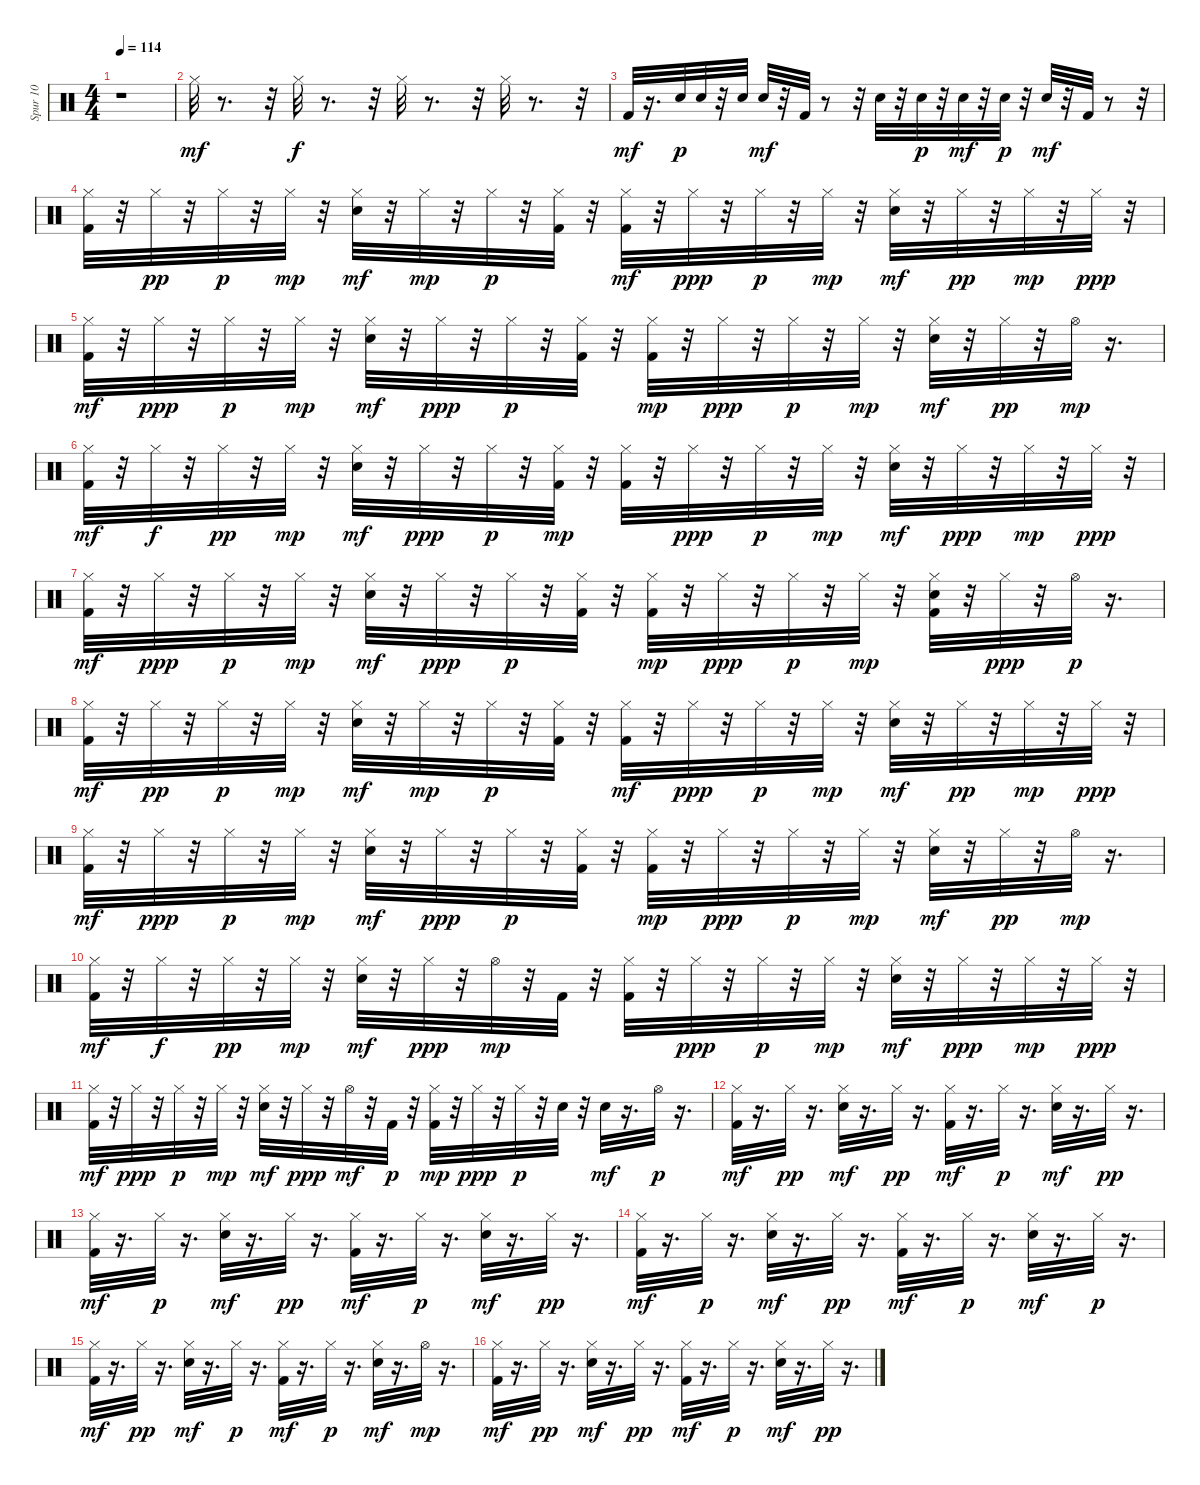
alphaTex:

\track ("Spur 10" "Spur 10") {instrument percussion}
\staff {score}
\articulation defaults
\ts (4 4)
\tempo 114
\clef neutral
\ks c
r.1{dy mf} |
"Hi-Hat (closed)".32 r.8{d} r.32 "Hi-Hat (closed)".32{dy f} r.8{d} r.32 "Hi-Hat (closed)".32 r.8{d} r.32 "Hi-Hat (closed)".32 r.8{d} r.32 |
"Kick (hit) 2".32{dy mf} r.16{d} "Electric Snare (hit)".32{dy p} "Electric Snare (hit)".32 r.32 "Electric Snare (hit)".32 "Electric Snare (hit)".32{dy mf} r.32 "Kick (hit) 2".32 r.8 r.32 "Electric Snare (hit)".32 r.32 "Electric Snare (hit)".32{dy p} r.32 "Electric Snare (hit)".32{dy mf} r.32 "Electric Snare (hit)".32{dy p} r.32 "Electric Snare (hit)".32{dy mf} r.32 "Kick (hit) 2".32 r.8 r.32 |
("Hi-Hat (closed)" "Kick (hit) 2").32 r.32 "Hi-Hat (closed)".32{dy pp} r.32 "Hi-Hat (closed)".32{dy p} r.32 "Hi-Hat (closed)".32{dy mp} r.32 ("Hi-Hat (closed)" "Electric Snare (hit)").32{dy mf} r.32 "Hi-Hat (closed)".32{dy mp} r.32 "Hi-Hat (closed)".32{dy p} r.32 ("Hi-Hat (closed)" "Kick (hit) 2").32 r.32 ("Hi-Hat (closed)" "Kick (hit) 2").32{dy mf} r.32 "Hi-Hat (closed)".32{dy ppp} r.32 "Hi-Hat (closed)".32{dy p} r.32 "Hi-Hat (closed)".32{dy mp} r.32 ("Hi-Hat (closed)" "Electric Snare (hit)").32{dy mf} r.32 "Hi-Hat (closed)".32{dy pp} r.32 "Hi-Hat (closed)".32{dy mp} r.32 "Hi-Hat (closed)".32{dy ppp} r.32 |
("Hi-Hat (closed)" "Kick (hit) 2").32{dy mf} r.32 "Hi-Hat (closed)".32{dy ppp} r.32 "Hi-Hat (closed)".32{dy p} r.32 "Hi-Hat (closed)".32{dy mp} r.32 ("Hi-Hat (closed)" "Electric Snare (hit)").32{dy mf} r.32 "Hi-Hat (closed)".32{dy ppp} r.32 "Hi-Hat (closed)".32{dy p} r.32 ("Hi-Hat (closed)" "Kick (hit) 2").32 r.32 ("Hi-Hat (closed)" "Kick (hit) 2").32{dy mp} r.32 "Hi-Hat (closed)".32{dy ppp} r.32 "Hi-Hat (closed)".32{dy p} r.32 "Hi-Hat (closed)".32{dy mp} r.32 ("Hi-Hat (closed)" "Electric Snare (hit)").32{dy mf} r.32 "Hi-Hat (closed)".32{dy pp} r.32 "Hi-Hat (open)".32{dy mp} r.16{d} |
("Hi-Hat (closed)" "Kick (hit) 2").32{dy mf} r.32 "Hi-Hat (closed)".32{dy f} r.32 "Hi-Hat (closed)".32{dy pp} r.32 "Hi-Hat (closed)".32{dy mp} r.32 ("Hi-Hat (closed)" "Electric Snare (hit)").32{dy mf} r.32 "Hi-Hat (closed)".32{dy ppp} r.32 "Hi-Hat (closed)".32{dy p} r.32 ("Hi-Hat (closed)" "Kick (hit) 2").32{dy mp} r.32 ("Hi-Hat (closed)" "Kick (hit) 2").32 r.32 "Hi-Hat (closed)".32{dy ppp} r.32 "Hi-Hat (closed)".32{dy p} r.32 "Hi-Hat (closed)".32{dy mp} r.32 ("Hi-Hat (closed)" "Electric Snare (hit)").32{dy mf} r.32 "Hi-Hat (closed)".32{dy ppp} r.32 "Hi-Hat (closed)".32{dy mp} r.32 "Hi-Hat (closed)".32{dy ppp} r.32 |
("Hi-Hat (closed)" "Kick (hit) 2").32{dy mf} r.32 "Hi-Hat (closed)".32{dy ppp} r.32 "Hi-Hat (closed)".32{dy p} r.32 "Hi-Hat (closed)".32{dy mp} r.32 ("Hi-Hat (closed)" "Electric Snare (hit)").32{dy mf} r.32 "Hi-Hat (closed)".32{dy ppp} r.32 "Hi-Hat (closed)".32{dy p} r.32 ("Hi-Hat (closed)" "Kick (hit) 2").32 r.32 ("Hi-Hat (closed)" "Kick (hit) 2").32{dy mp} r.32 "Hi-Hat (closed)".32{dy ppp} r.32 "Hi-Hat (closed)".32{dy p} r.32 "Hi-Hat (closed)".32{dy mp} r.32 ("Hi-Hat (closed)" "Electric Snare (hit)" "Kick (hit) 2").32 r.32 "Hi-Hat (closed)".32{dy ppp} r.32 "Hi-Hat (open)".32{dy p} r.16{d} |
("Hi-Hat (closed)" "Kick (hit) 2").32{dy mf} r.32 "Hi-Hat (closed)".32{dy pp} r.32 "Hi-Hat (closed)".32{dy p} r.32 "Hi-Hat (closed)".32{dy mp} r.32 ("Hi-Hat (closed)" "Electric Snare (hit)").32{dy mf} r.32 "Hi-Hat (closed)".32{dy mp} r.32 "Hi-Hat (closed)".32{dy p} r.32 ("Hi-Hat (closed)" "Kick (hit) 2").32 r.32 ("Hi-Hat (closed)" "Kick (hit) 2").32{dy mf} r.32 "Hi-Hat (closed)".32{dy ppp} r.32 "Hi-Hat (closed)".32{dy p} r.32 "Hi-Hat (closed)".32{dy mp} r.32 ("Hi-Hat (closed)" "Electric Snare (hit)").32{dy mf} r.32 "Hi-Hat (closed)".32{dy pp} r.32 "Hi-Hat (closed)".32{dy mp} r.32 "Hi-Hat (closed)".32{dy ppp} r.32 |
("Hi-Hat (closed)" "Kick (hit) 2").32{dy mf} r.32 "Hi-Hat (closed)".32{dy ppp} r.32 "Hi-Hat (closed)".32{dy p} r.32 "Hi-Hat (closed)".32{dy mp} r.32 ("Hi-Hat (closed)" "Electric Snare (hit)").32{dy mf} r.32 "Hi-Hat (closed)".32{dy ppp} r.32 "Hi-Hat (closed)".32{dy p} r.32 ("Hi-Hat (closed)" "Kick (hit) 2").32 r.32 ("Hi-Hat (closed)" "Kick (hit) 2").32{dy mp} r.32 "Hi-Hat (closed)".32{dy ppp} r.32 "Hi-Hat (closed)".32{dy p} r.32 "Hi-Hat (closed)".32{dy mp} r.32 ("Hi-Hat (closed)" "Electric Snare (hit)").32{dy mf} r.32 "Hi-Hat (closed)".32{dy pp} r.32 "Hi-Hat (open)".32{dy mp} r.16{d} |
("Hi-Hat (closed)" "Kick (hit) 2").32{dy mf} r.32 "Hi-Hat (closed)".32{dy f} r.32 "Hi-Hat (closed)".32{dy pp} r.32 "Hi-Hat (closed)".32{dy mp} r.32 ("Hi-Hat (closed)" "Electric Snare (hit)").32{dy mf} r.32 "Hi-Hat (closed)".32{dy ppp} r.32 "Hi-Hat (open)".32{dy mp} r.32 "Kick (hit) 2".32 r.32 ("Hi-Hat (closed)" "Kick (hit) 2").32 r.32 "Hi-Hat (closed)".32{dy ppp} r.32 "Hi-Hat (closed)".32{dy p} r.32 "Hi-Hat (closed)".32{dy mp} r.32 ("Hi-Hat (closed)" "Electric Snare (hit)").32{dy mf} r.32 "Hi-Hat (closed)".32{dy ppp} r.32 "Hi-Hat (closed)".32{dy mp} r.32 "Hi-Hat (closed)".32{dy ppp} r.32 |
("Hi-Hat (closed)" "Kick (hit) 2").32{dy mf} r.32 "Hi-Hat (closed)".32{dy ppp} r.32 "Hi-Hat (closed)".32{dy p} r.32 "Hi-Hat (closed)".32{dy mp} r.32 ("Hi-Hat (closed)" "Electric Snare (hit)").32{dy mf} r.32 "Hi-Hat (closed)".32{dy ppp} r.32 "Hi-Hat (open)".32{dy mf} r.32 "Kick (hit) 2".32{dy p} r.32 ("Hi-Hat (closed)" "Kick (hit) 2").32{dy mp} r.32 "Hi-Hat (closed)".32{dy ppp} r.32 "Hi-Hat (closed)".32{dy p} r.32 "Electric Snare (hit)".32 r.32 "Electric Snare (hit)".32{dy mf} r.16{d} "Hi-Hat (open)".32{dy p} r.16{d} |
("Hi-Hat (closed)" "Kick (hit) 2").32{dy mf} r.16{d} "Hi-Hat (closed)".32{dy pp} r.16{d} ("Hi-Hat (closed)" "Electric Snare (hit)").32{dy mf} r.16{d} "Hi-Hat (closed)".32{dy pp} r.16{d} ("Hi-Hat (closed)" "Kick (hit) 2").32{dy mf} r.16{d} "Hi-Hat (closed)".32{dy p} r.16{d} ("Hi-Hat (closed)" "Electric Snare (hit)").32{dy mf} r.16{d} "Hi-Hat (closed)".32{dy pp} r.16{d} |
("Hi-Hat (closed)" "Kick (hit) 2").32{dy mf} r.16{d} "Hi-Hat (closed)".32{dy p} r.16{d} ("Hi-Hat (closed)" "Electric Snare (hit)").32{dy mf} r.16{d} "Hi-Hat (closed)".32{dy pp} r.16{d} ("Hi-Hat (closed)" "Kick (hit) 2").32{dy mf} r.16{d} "Hi-Hat (closed)".32{dy p} r.16{d} ("Hi-Hat (closed)" "Electric Snare (hit)").32{dy mf} r.16{d} "Hi-Hat (closed)".32{dy pp} r.16{d} |
("Hi-Hat (closed)" "Kick (hit) 2").32{dy mf} r.16{d} "Hi-Hat (closed)".32{dy p} r.16{d} ("Hi-Hat (closed)" "Electric Snare (hit)").32{dy mf} r.16{d} "Hi-Hat (closed)".32{dy pp} r.16{d} ("Hi-Hat (closed)" "Kick (hit) 2").32{dy mf} r.16{d} "Hi-Hat (closed)".32{dy p} r.16{d} ("Hi-Hat (closed)" "Electric Snare (hit)").32{dy mf} r.16{d} "Hi-Hat (closed)".32{dy p} r.16{d} |
("Hi-Hat (closed)" "Kick (hit) 2").32{dy mf} r.16{d} "Hi-Hat (closed)".32{dy pp} r.16{d} ("Hi-Hat (closed)" "Electric Snare (hit)").32{dy mf} r.16{d} "Hi-Hat (closed)".32{dy p} r.16{d} ("Hi-Hat (closed)" "Kick (hit) 2").32{dy mf} r.16{d} "Hi-Hat (closed)".32{dy p} r.16{d} ("Hi-Hat (closed)" "Electric Snare (hit)").32{dy mf} r.16{d} "Hi-Hat (open)".32{dy mp} r.16{d} |
("Hi-Hat (closed)" "Kick (hit) 2").32{dy mf} r.16{d} "Hi-Hat (closed)".32{dy pp} r.16{d} ("Hi-Hat (closed)" "Electric Snare (hit)").32{dy mf} r.16{d} "Hi-Hat (closed)".32{dy pp} r.16{d} ("Hi-Hat (closed)" "Kick (hit) 2").32{dy mf} r.16{d} "Hi-Hat (closed)".32{dy p} r.16{d} ("Hi-Hat (closed)" "Electric Snare (hit)").32{dy mf} r.16{d} "Hi-Hat (closed)".32{dy pp} r.16{d}
